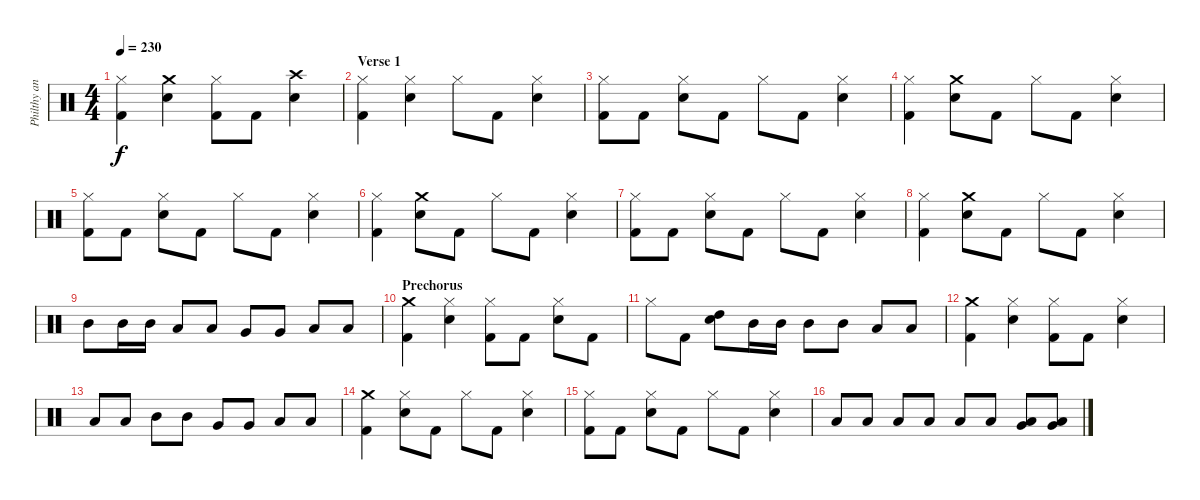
\track ("Philthy animal Taylor" "Philthy an") {instrument percussion}
\staff {score}
\articulation defaults
\ts (4 4)
\tempo 230
\clef neutral
\ks c
("Hi-Hat (closed)" "Kick (hit) 2").4{dy f} ("Crash medium (hit)" "Snare (hit) 2").4 ("Hi-Hat (closed)" "Kick (hit) 2").8 "Kick (hit) 2".8 ("Crash high (hit)" "Snare (hit) 2").4 |
\section ("" "Verse 1")
("Hi-Hat (closed)" "Kick (hit) 2").4 ("Hi-Hat (closed)" "Snare (hit) 2").4 "Hi-Hat (closed)".8 "Kick (hit) 2".8 ("Hi-Hat (closed)" "Snare (hit) 2").4 |
("Hi-Hat (closed)" "Kick (hit) 2").8 "Kick (hit) 2".8 ("Hi-Hat (closed)" "Snare (hit) 2").8 "Kick (hit) 2".8 "Hi-Hat (closed)".8 "Kick (hit) 2".8 ("Hi-Hat (closed)" "Snare (hit) 2").4 |
("Hi-Hat (closed)" "Kick (hit) 2").4 ("Crash medium (hit)" "Snare (hit) 2").8 "Kick (hit) 2".8 "Hi-Hat (closed)".8 "Kick (hit) 2".8 ("Hi-Hat (closed)" "Snare (hit) 2").4 |
("Hi-Hat (closed)" "Kick (hit) 2").8 "Kick (hit) 2".8 ("Hi-Hat (closed)" "Snare (hit) 2").8 "Kick (hit) 2".8 "Hi-Hat (closed)".8 "Kick (hit) 2".8 ("Hi-Hat (closed)" "Snare (hit) 2").4 |
("Hi-Hat (closed)" "Kick (hit) 2").4 ("Crash medium (hit)" "Snare (hit) 2").8 "Kick (hit) 2".8 "Hi-Hat (closed)".8 "Kick (hit) 2".8 ("Hi-Hat (closed)" "Snare (hit) 2").4 |
("Hi-Hat (closed)" "Kick (hit) 2").8 "Kick (hit) 2".8 ("Hi-Hat (closed)" "Snare (hit) 2").8 "Kick (hit) 2".8 "Hi-Hat (closed)".8 "Kick (hit) 2".8 ("Hi-Hat (closed)" "Snare (hit) 2").4 |
("Hi-Hat (closed)" "Kick (hit) 2").4 ("Crash medium (hit)" "Snare (hit) 2").8 "Kick (hit) 2".8 "Hi-Hat (closed)".8 "Kick (hit) 2".8 ("Hi-Hat (closed)" "Snare (hit) 2").4 |
"Mid Tom (hit)".8 "Mid Tom (hit)".16 "Mid Tom (hit)".16 "Low Tom (hit)".8 "Low Tom (hit)".8 "Very Low Tom (hit)".8 "Very Low Tom (hit)".8 "Low Floor Tom (hit)".8 "Low Floor Tom (hit)".8 |
\section ("" "Prechorus")
("Crash medium (hit)" "Kick (hit) 2").4 ("Hi-Hat (closed)" "Snare (hit) 2").4 ("Hi-Hat (closed)" "Kick (hit) 2").8 "Kick (hit) 2".8 ("Hi-Hat (closed)" "Snare (hit) 2").8 "Kick (hit) 2".8 |
"Hi-Hat (closed)".8 "Kick (hit) 2".8 ("High Tom (hit)" "Snare (hit) 2").8 "Mid Tom (hit)".16 "Mid Tom (hit)".16 "Mid Tom (hit)".8 "Mid Tom (hit)".8 "Low Tom (hit)".8 "Low Tom (hit)".8 |
("Crash medium (hit)" "Kick (hit) 2").4 ("Hi-Hat (closed)" "Snare (hit) 2").4 ("Hi-Hat (closed)" "Kick (hit) 2").8 "Kick (hit) 2".8 ("Hi-Hat (closed)" "Snare (hit) 2").4 |
"Low Tom (hit)".8 "Low Tom (hit)".8 "Mid Tom (hit)".8 "Mid Tom (hit)".8 "Very Low Tom (hit)".8 "Very Low Tom (hit)".8 "Low Floor Tom (hit)".8 "Low Floor Tom (hit)".8 |
("Crash medium (hit)" "Kick (hit) 2").4 ("Hi-Hat (closed)" "Snare (hit) 2").8 "Kick (hit) 2".8 "Hi-Hat (closed)".8 "Kick (hit) 2".8 ("Hi-Hat (closed)" "Snare (hit) 2").4 |
("Hi-Hat (closed)" "Kick (hit) 2").8 "Kick (hit) 2".8 ("Hi-Hat (closed)" "Snare (hit) 2").8 "Kick (hit) 2".8 "Hi-Hat (closed)".8 "Kick (hit) 2".8 ("Hi-Hat (closed)" "Snare (hit) 2").4 |
"Low Tom (hit)".8 "Low Tom (hit)".8 "Low Tom (hit)".8 "Low Tom (hit)".8 "Low Tom (hit)".8 "Low Tom (hit)".8 ("Low Tom (hit)" "Very Low Tom (hit)").8 ("Low Tom (hit)" "Very Low Tom (hit)").8
